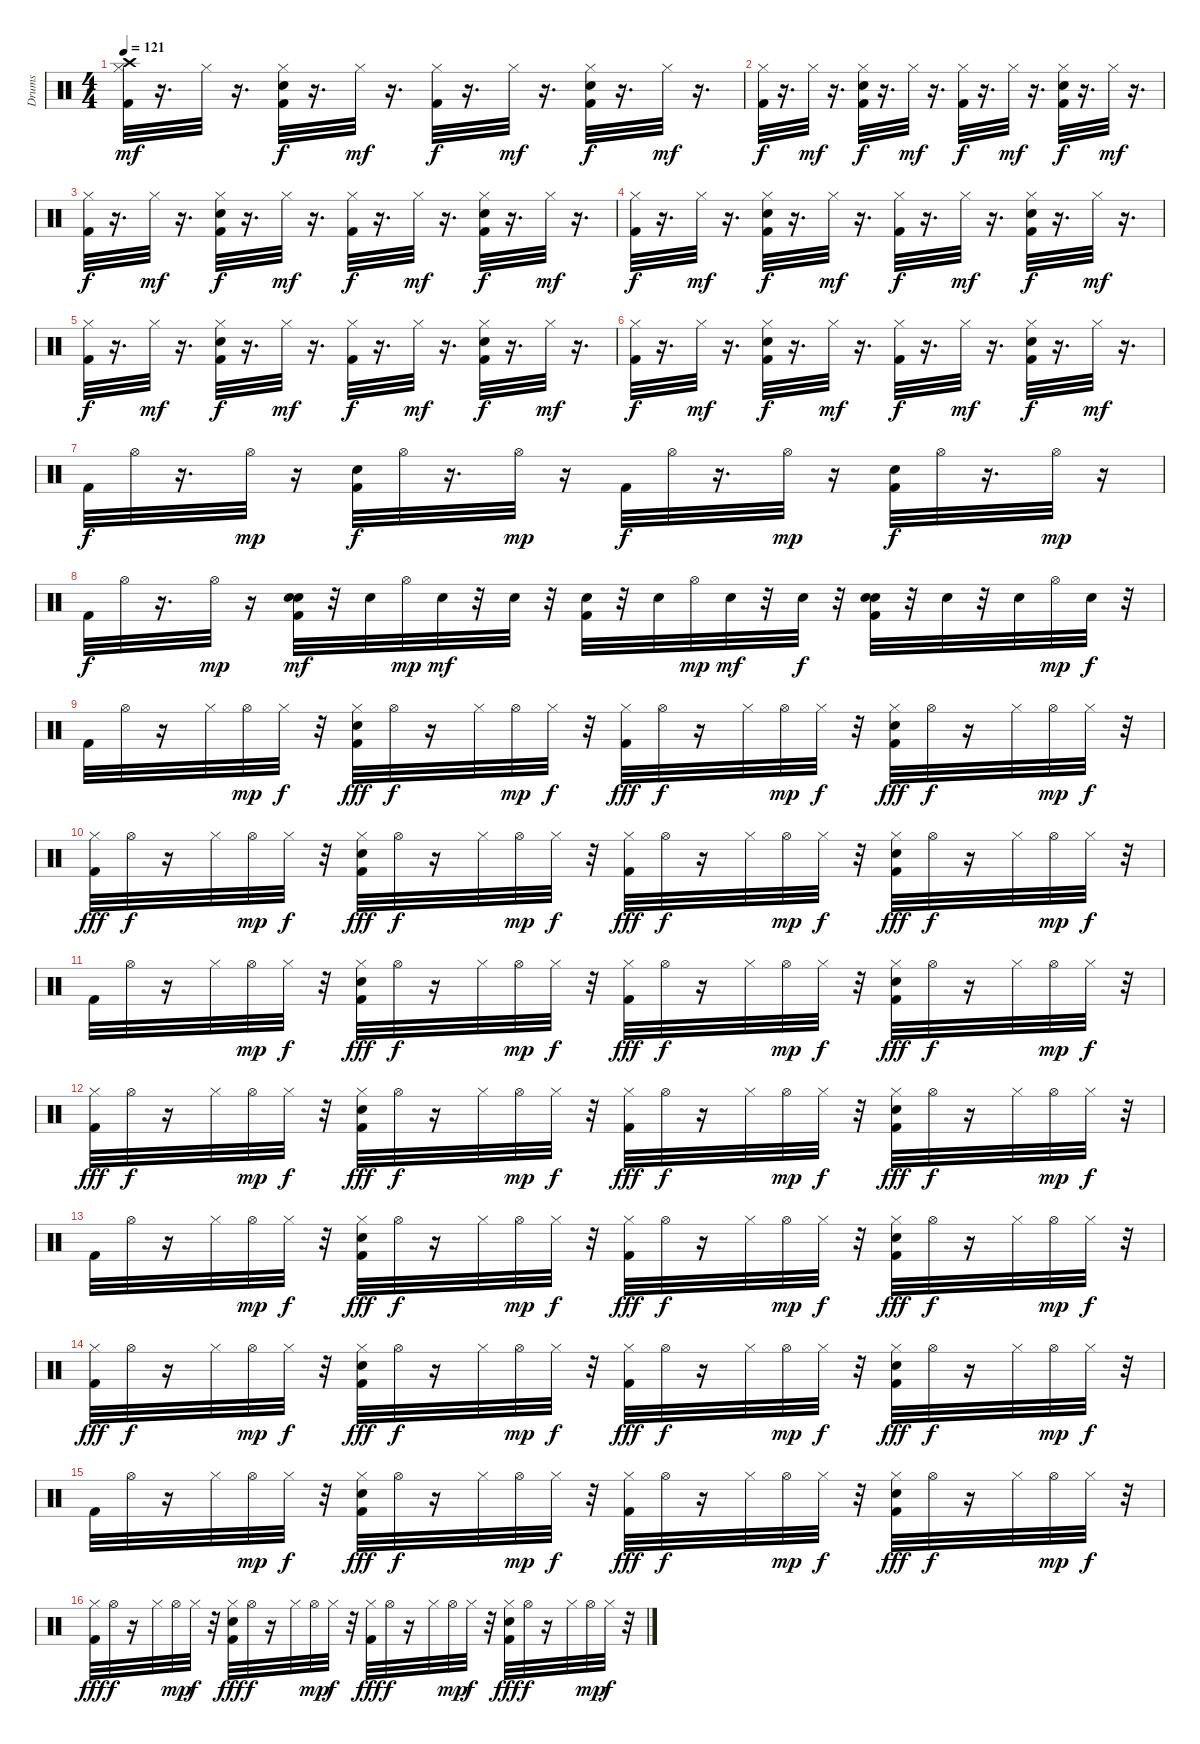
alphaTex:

\track ("Drums" "Drums") {instrument percussion}
\staff {score}
\articulation defaults
\ts (4 4)
\tempo 121
\clef neutral
\ks c
("Kick (hit) 2" "Hi-Hat (closed)" "Crash high (hit)").32{dy mf} r.16{d} "Hi-Hat (closed)".32 r.16{d} ("Kick (hit) 2" "Hi-Hat (closed)" "Snare (hit) 2").32{dy f} r.16{d} "Hi-Hat (closed)".32{dy mf} r.16{d} ("Hi-Hat (closed)" "Kick (hit) 2").32{dy f} r.16{d} "Hi-Hat (closed)".32{dy mf} r.16{d} ("Kick (hit) 2" "Hi-Hat (closed)" "Snare (hit) 2").32{dy f} r.16{d} "Hi-Hat (closed)".32{dy mf} r.16{d} |
("Hi-Hat (closed)" "Kick (hit) 2").32{dy f} r.16{d} "Hi-Hat (closed)".32{dy mf} r.16{d} ("Kick (hit) 2" "Hi-Hat (closed)" "Snare (hit) 2").32{dy f} r.16{d} "Hi-Hat (closed)".32{dy mf} r.16{d} ("Hi-Hat (closed)" "Kick (hit) 2").32{dy f} r.16{d} "Hi-Hat (closed)".32{dy mf} r.16{d} ("Kick (hit) 2" "Hi-Hat (closed)" "Snare (hit) 2").32{dy f} r.16{d} "Hi-Hat (closed)".32{dy mf} r.16{d} |
("Kick (hit) 2" "Hi-Hat (closed)").32{dy f} r.16{d} "Hi-Hat (closed)".32{dy mf} r.16{d} ("Kick (hit) 2" "Hi-Hat (closed)" "Snare (hit) 2").32{dy f} r.16{d} "Hi-Hat (closed)".32{dy mf} r.16{d} ("Hi-Hat (closed)" "Kick (hit) 2").32{dy f} r.16{d} "Hi-Hat (closed)".32{dy mf} r.16{d} ("Kick (hit) 2" "Hi-Hat (closed)" "Snare (hit) 2").32{dy f} r.16{d} "Hi-Hat (closed)".32{dy mf} r.16{d} |
("Hi-Hat (closed)" "Kick (hit) 2").32{dy f} r.16{d} "Hi-Hat (closed)".32{dy mf} r.16{d} ("Kick (hit) 2" "Hi-Hat (closed)" "Snare (hit) 2").32{dy f} r.16{d} "Hi-Hat (closed)".32{dy mf} r.16{d} ("Hi-Hat (closed)" "Kick (hit) 2").32{dy f} r.16{d} "Hi-Hat (closed)".32{dy mf} r.16{d} ("Kick (hit) 2" "Hi-Hat (closed)" "Snare (hit) 2").32{dy f} r.16{d} "Hi-Hat (closed)".32{dy mf} r.16{d} |
("Kick (hit) 2" "Hi-Hat (closed)").32{dy f} r.16{d} "Hi-Hat (closed)".32{dy mf} r.16{d} ("Kick (hit) 2" "Hi-Hat (closed)" "Snare (hit) 2").32{dy f} r.16{d} "Hi-Hat (closed)".32{dy mf} r.16{d} ("Hi-Hat (closed)" "Kick (hit) 2").32{dy f} r.16{d} "Hi-Hat (closed)".32{dy mf} r.16{d} ("Kick (hit) 2" "Hi-Hat (closed)" "Snare (hit) 2").32{dy f} r.16{d} "Hi-Hat (closed)".32{dy mf} r.16{d} |
("Hi-Hat (closed)" "Kick (hit) 2").32{dy f} r.16{d} "Hi-Hat (closed)".32{dy mf} r.16{d} ("Kick (hit) 2" "Hi-Hat (closed)" "Snare (hit) 2").32{dy f} r.16{d} "Hi-Hat (closed)".32{dy mf} r.16{d} ("Hi-Hat (closed)" "Kick (hit) 2").32{dy f} r.16{d} "Hi-Hat (closed)".32{dy mf} r.16{d} ("Kick (hit) 2" "Hi-Hat (closed)" "Snare (hit) 2").32{dy f} r.16{d} "Hi-Hat (closed)".32{dy mf} r.16{d} |
"Kick (hit) 2".32{dy f} "Hi-Hat (open)".32 r.16{d} "Hi-Hat (open)".32{dy mp} r.16 ("Kick (hit) 2" "Snare (hit) 2").32{dy f} "Hi-Hat (open)".32 r.16{d} "Hi-Hat (open)".32{dy mp} r.16 "Kick (hit) 2".32{dy f} "Hi-Hat (open)".32 r.16{d} "Hi-Hat (open)".32{dy mp} r.16 ("Kick (hit) 2" "Snare (hit) 2").32{dy f} "Hi-Hat (open)".32 r.16{d} "Hi-Hat (open)".32{dy mp} r.16 |
"Kick (hit) 2".32{dy f} "Hi-Hat (open)".32 r.16{d} "Hi-Hat (open)".32{dy mp} r.16 ("Kick (hit) 2" "Snare (hit) 2" "Snare (hit) 2").32{dy mf} r.32 "Snare (hit) 2".32 "Hi-Hat (open)".32{dy mp} "Snare (hit) 2".32{dy mf} r.32 "Snare (hit) 2".32 r.32 ("Kick (hit) 2" "Snare (hit) 2").32 r.32 "Snare (hit) 2".32 "Hi-Hat (open)".32{dy mp} "Snare (hit) 2".32{dy mf} r.32 "Snare (hit) 2".32{dy f} r.32 ("Kick (hit) 2" "Snare (hit) 2" "Snare (hit) 2").32 r.32 "Snare (hit) 2".32 r.32 "Snare (hit) 2".32 "Hi-Hat (open)".32{dy mp} "Snare (hit) 2".32{dy f} r.32 |
"Kick (hit) 2".32 "Hi-Hat (open)".32 r.16 "Hi-Hat (closed)".32 "Hi-Hat (open)".32{dy mp} "Hi-Hat (closed)".32{dy f} r.32 ("Kick (hit) 2" "Snare (hit) 2" "Hi-Hat (closed)").32{dy fff} "Hi-Hat (open)".32{dy f} r.16 "Hi-Hat (closed)".32 "Hi-Hat (open)".32{dy mp} "Hi-Hat (closed)".32{dy f} r.32 ("Hi-Hat (closed)" "Kick (hit) 2").32{dy fff} "Hi-Hat (open)".32{dy f} r.16 "Hi-Hat (closed)".32 "Hi-Hat (open)".32{dy mp} "Hi-Hat (closed)".32{dy f} r.32 ("Hi-Hat (closed)" "Kick (hit) 2" "Snare (hit) 2").32{dy fff} "Hi-Hat (open)".32{dy f} r.16 "Hi-Hat (closed)".32 "Hi-Hat (open)".32{dy mp} "Hi-Hat (closed)".32{dy f} r.32 |
("Hi-Hat (closed)" "Kick (hit) 2").32{dy fff} "Hi-Hat (open)".32{dy f} r.16 "Hi-Hat (closed)".32 "Hi-Hat (open)".32{dy mp} "Hi-Hat (closed)".32{dy f} r.32 ("Hi-Hat (closed)" "Kick (hit) 2" "Snare (hit) 2").32{dy fff} "Hi-Hat (open)".32{dy f} r.16 "Hi-Hat (closed)".32 "Hi-Hat (open)".32{dy mp} "Hi-Hat (closed)".32{dy f} r.32 ("Hi-Hat (closed)" "Kick (hit) 2").32{dy fff} "Hi-Hat (open)".32{dy f} r.16 "Hi-Hat (closed)".32 "Hi-Hat (open)".32{dy mp} "Hi-Hat (closed)".32{dy f} r.32 ("Hi-Hat (closed)" "Kick (hit) 2" "Snare (hit) 2").32{dy fff} "Hi-Hat (open)".32{dy f} r.16 "Hi-Hat (closed)".32 "Hi-Hat (open)".32{dy mp} "Hi-Hat (closed)".32{dy f} r.32 |
"Kick (hit) 2".32 "Hi-Hat (open)".32 r.16 "Hi-Hat (closed)".32 "Hi-Hat (open)".32{dy mp} "Hi-Hat (closed)".32{dy f} r.32 ("Kick (hit) 2" "Snare (hit) 2" "Hi-Hat (closed)").32{dy fff} "Hi-Hat (open)".32{dy f} r.16 "Hi-Hat (closed)".32 "Hi-Hat (open)".32{dy mp} "Hi-Hat (closed)".32{dy f} r.32 ("Kick (hit) 2" "Hi-Hat (closed)").32{dy fff} "Hi-Hat (open)".32{dy f} r.16 "Hi-Hat (closed)".32 "Hi-Hat (open)".32{dy mp} "Hi-Hat (closed)".32{dy f} r.32 ("Kick (hit) 2" "Snare (hit) 2" "Hi-Hat (closed)").32{dy fff} "Hi-Hat (open)".32{dy f} r.16 "Hi-Hat (closed)".32 "Hi-Hat (open)".32{dy mp} "Hi-Hat (closed)".32{dy f} r.32 |
("Kick (hit) 2" "Hi-Hat (closed)").32{dy fff} "Hi-Hat (open)".32{dy f} r.16 "Hi-Hat (closed)".32 "Hi-Hat (open)".32{dy mp} "Hi-Hat (closed)".32{dy f} r.32 ("Kick (hit) 2" "Snare (hit) 2" "Hi-Hat (closed)").32{dy fff} "Hi-Hat (open)".32{dy f} r.16 "Hi-Hat (closed)".32 "Hi-Hat (open)".32{dy mp} "Hi-Hat (closed)".32{dy f} r.32 ("Kick (hit) 2" "Hi-Hat (closed)").32{dy fff} "Hi-Hat (open)".32{dy f} r.16 "Hi-Hat (closed)".32 "Hi-Hat (open)".32{dy mp} "Hi-Hat (closed)".32{dy f} r.32 ("Kick (hit) 2" "Snare (hit) 2" "Hi-Hat (closed)").32{dy fff} "Hi-Hat (open)".32{dy f} r.16 "Hi-Hat (closed)".32 "Hi-Hat (open)".32{dy mp} "Hi-Hat (closed)".32{dy f} r.32 |
"Kick (hit) 2".32 "Hi-Hat (open)".32 r.16 "Hi-Hat (closed)".32 "Hi-Hat (open)".32{dy mp} "Hi-Hat (closed)".32{dy f} r.32 ("Kick (hit) 2" "Snare (hit) 2" "Hi-Hat (closed)").32{dy fff} "Hi-Hat (open)".32{dy f} r.16 "Hi-Hat (closed)".32 "Hi-Hat (open)".32{dy mp} "Hi-Hat (closed)".32{dy f} r.32 ("Kick (hit) 2" "Hi-Hat (closed)").32{dy fff} "Hi-Hat (open)".32{dy f} r.16 "Hi-Hat (closed)".32 "Hi-Hat (open)".32{dy mp} "Hi-Hat (closed)".32{dy f} r.32 ("Kick (hit) 2" "Snare (hit) 2" "Hi-Hat (closed)").32{dy fff} "Hi-Hat (open)".32{dy f} r.16 "Hi-Hat (closed)".32 "Hi-Hat (open)".32{dy mp} "Hi-Hat (closed)".32{dy f} r.32 |
("Kick (hit) 2" "Hi-Hat (closed)").32{dy fff} "Hi-Hat (open)".32{dy f} r.16 "Hi-Hat (closed)".32 "Hi-Hat (open)".32{dy mp} "Hi-Hat (closed)".32{dy f} r.32 ("Kick (hit) 2" "Snare (hit) 2" "Hi-Hat (closed)").32{dy fff} "Hi-Hat (open)".32{dy f} r.16 "Hi-Hat (closed)".32 "Hi-Hat (open)".32{dy mp} "Hi-Hat (closed)".32{dy f} r.32 ("Kick (hit) 2" "Hi-Hat (closed)").32{dy fff} "Hi-Hat (open)".32{dy f} r.16 "Hi-Hat (closed)".32 "Hi-Hat (open)".32{dy mp} "Hi-Hat (closed)".32{dy f} r.32 ("Kick (hit) 2" "Snare (hit) 2" "Hi-Hat (closed)").32{dy fff} "Hi-Hat (open)".32{dy f} r.16 "Hi-Hat (closed)".32 "Hi-Hat (open)".32{dy mp} "Hi-Hat (closed)".32{dy f} r.32 |
"Kick (hit) 2".32 "Hi-Hat (open)".32 r.16 "Hi-Hat (closed)".32 "Hi-Hat (open)".32{dy mp} "Hi-Hat (closed)".32{dy f} r.32 ("Kick (hit) 2" "Snare (hit) 2" "Hi-Hat (closed)").32{dy fff} "Hi-Hat (open)".32{dy f} r.16 "Hi-Hat (closed)".32 "Hi-Hat (open)".32{dy mp} "Hi-Hat (closed)".32{dy f} r.32 ("Kick (hit) 2" "Hi-Hat (closed)").32{dy fff} "Hi-Hat (open)".32{dy f} r.16 "Hi-Hat (closed)".32 "Hi-Hat (open)".32{dy mp} "Hi-Hat (closed)".32{dy f} r.32 ("Kick (hit) 2" "Snare (hit) 2" "Hi-Hat (closed)").32{dy fff} "Hi-Hat (open)".32{dy f} r.16 "Hi-Hat (closed)".32 "Hi-Hat (open)".32{dy mp} "Hi-Hat (closed)".32{dy f} r.32 |
("Kick (hit) 2" "Hi-Hat (closed)").32{dy fff} "Hi-Hat (open)".32{dy f} r.16 "Hi-Hat (closed)".32 "Hi-Hat (open)".32{dy mp} "Hi-Hat (closed)".32{dy f} r.32 ("Kick (hit) 2" "Snare (hit) 2" "Hi-Hat (closed)").32{dy fff} "Hi-Hat (open)".32{dy f} r.16 "Hi-Hat (closed)".32 "Hi-Hat (open)".32{dy mp} "Hi-Hat (closed)".32{dy f} r.32 ("Kick (hit) 2" "Hi-Hat (closed)").32{dy fff} "Hi-Hat (open)".32{dy f} r.16 "Hi-Hat (closed)".32 "Hi-Hat (open)".32{dy mp} "Hi-Hat (closed)".32{dy f} r.32 ("Kick (hit) 2" "Snare (hit) 2" "Hi-Hat (closed)").32{dy fff} "Hi-Hat (open)".32{dy f} r.16 "Hi-Hat (closed)".32 "Hi-Hat (open)".32{dy mp} "Hi-Hat (closed)".32{dy f} r.32
